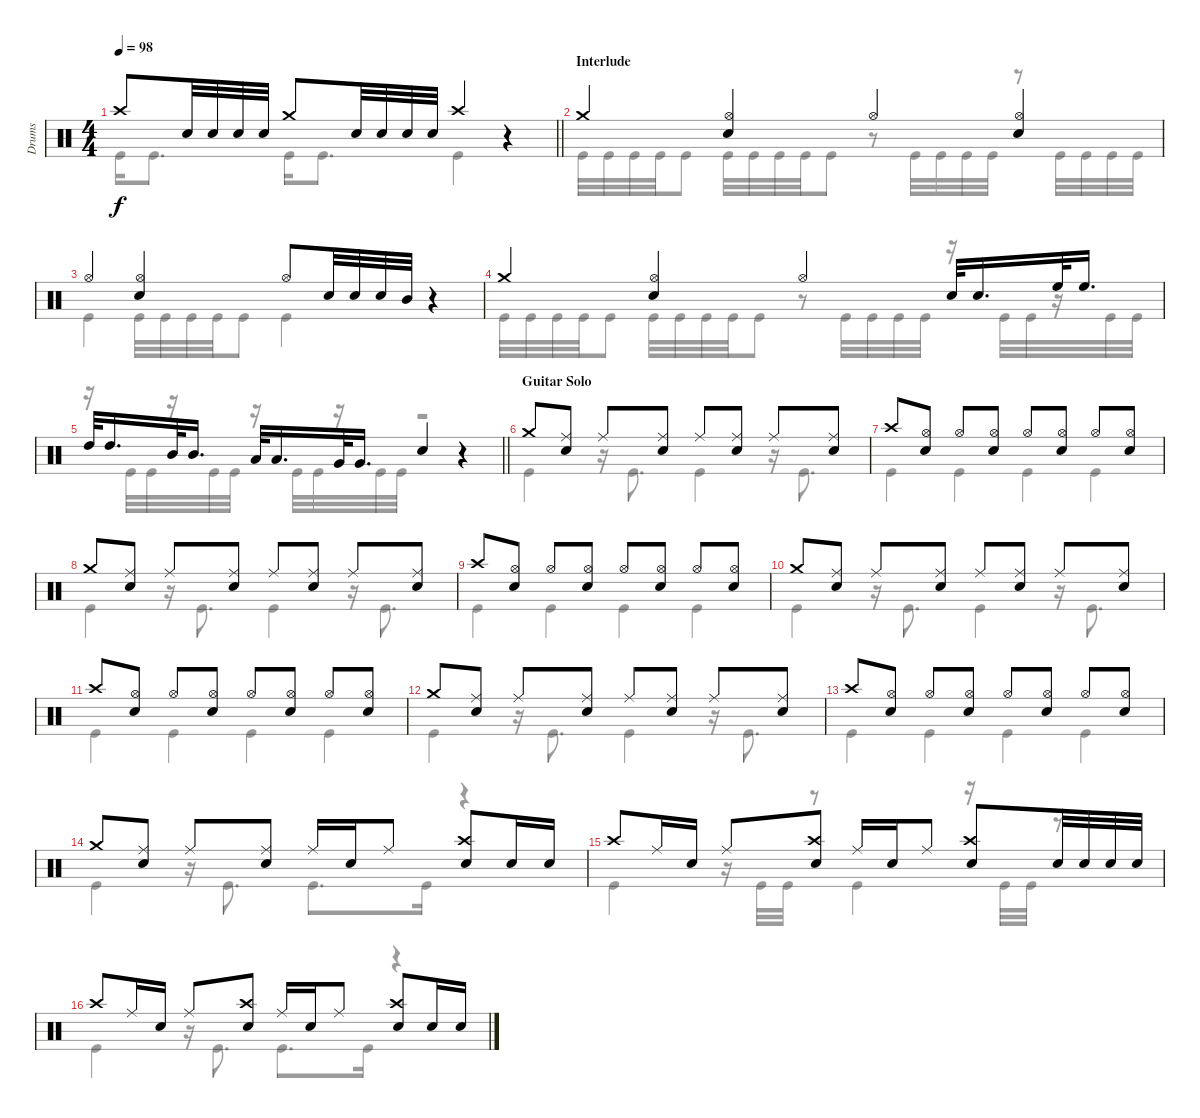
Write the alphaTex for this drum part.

\track ("Drums" "Drums") {instrument percussion}
\staff {score}
\articulation defaults
\voice
\ts (4 4)
\tempo 98
\clef neutral
\barLineRight lightlight
\ks c "Crash high (hit)".8{dy f} "Electric Snare (hit)".32 "Electric Snare (hit)".32 "Electric Snare (hit)".32 "Electric Snare (hit)".32 "Crash medium (hit)".8 "Electric Snare (hit)".32 "Electric Snare (hit)".32 "Electric Snare (hit)".32 "Electric Snare (hit)".32 "Crash high (hit)".4
r.4 |
\section ("" "Interlude")
"Crash medium (hit)".4 ("Hi-Hat (open)" "Electric Snare (hit)").4 "Hi-Hat (open)".4 ("Hi-Hat (open)" "Electric Snare (hit)").4 |
"Hi-Hat (open)".4 ("Hi-Hat (open)" "Electric Snare (hit)").4 "Hi-Hat (open)".8 "Electric Snare (hit)".32 "Electric Snare (hit)".32 "Electric Snare (hit)".32 "Mid Tom (hit)".32 r.4 |
"Crash medium (hit)".4 ("Hi-Hat (open)" "Electric Snare (hit)").4 "Hi-Hat (open)".4 "Electric Snare (hit)".32 "Electric Snare (hit)".16{d} "High Floor Tom (hit)".32 "High Floor Tom (hit)".16{d} |
\barLineRight lightlight "High Tom (hit)".32 "High Tom (hit)".16{d} "Mid Tom (hit)".32 "Mid Tom (hit)".16{d} "Low Tom (hit)".32 "Low Tom (hit)".16{d} "Very Low Tom (hit)".32 "Very Low Tom (hit)".16{d} "Electric Snare (hit)".4
r.4 |
\section ("" "Guitar Solo")
"Crash medium (hit)".8 ("Ride (middle)" "Electric Snare (hit)").8 "Ride (middle)".8 ("Ride (middle)" "Electric Snare (hit)").8 "Ride (middle)".8 ("Ride (middle)" "Electric Snare (hit)").8 "Ride (middle)".8 ("Ride (middle)" "Electric Snare (hit)").8 |
"Crash high (hit)".8 ("Hi-Hat (open)" "Electric Snare (hit)").8 "Hi-Hat (open)".8 ("Hi-Hat (open)" "Electric Snare (hit)").8 "Hi-Hat (open)".8 ("Hi-Hat (open)" "Electric Snare (hit)").8 "Hi-Hat (open)".8 ("Hi-Hat (open)" "Electric Snare (hit)").8 |
"Crash medium (hit)".8 ("Ride (middle)" "Electric Snare (hit)").8 "Ride (middle)".8 ("Ride (middle)" "Electric Snare (hit)").8 "Ride (middle)".8 ("Ride (middle)" "Electric Snare (hit)").8 "Ride (middle)".8 ("Ride (middle)" "Electric Snare (hit)").8 |
"Crash high (hit)".8 ("Hi-Hat (open)" "Electric Snare (hit)").8 "Hi-Hat (open)".8 ("Hi-Hat (open)" "Electric Snare (hit)").8 "Hi-Hat (open)".8 ("Hi-Hat (open)" "Electric Snare (hit)").8 "Hi-Hat (open)".8 ("Hi-Hat (open)" "Electric Snare (hit)").8 |
"Crash medium (hit)".8 ("Ride (middle)" "Electric Snare (hit)").8 "Ride (middle)".8 ("Ride (middle)" "Electric Snare (hit)").8 "Ride (middle)".8 ("Ride (middle)" "Electric Snare (hit)").8 "Ride (middle)".8 ("Ride (middle)" "Electric Snare (hit)").8 |
"Crash high (hit)".8 ("Hi-Hat (open)" "Electric Snare (hit)").8 "Hi-Hat (open)".8 ("Hi-Hat (open)" "Electric Snare (hit)").8 "Hi-Hat (open)".8 ("Hi-Hat (open)" "Electric Snare (hit)").8 "Hi-Hat (open)".8 ("Hi-Hat (open)" "Electric Snare (hit)").8 |
"Crash medium (hit)".8 ("Ride (middle)" "Electric Snare (hit)").8 "Ride (middle)".8 ("Ride (middle)" "Electric Snare (hit)").8 "Ride (middle)".8 ("Ride (middle)" "Electric Snare (hit)").8 "Ride (middle)".8 ("Ride (middle)" "Electric Snare (hit)").8 |
"Crash high (hit)".8 ("Hi-Hat (open)" "Electric Snare (hit)").8 "Hi-Hat (open)".8 ("Hi-Hat (open)" "Electric Snare (hit)").8 "Hi-Hat (open)".8 ("Hi-Hat (open)" "Electric Snare (hit)").8 "Hi-Hat (open)".8 ("Hi-Hat (open)" "Electric Snare (hit)").8 |
"Crash medium (hit)".8 ("Ride (middle)" "Electric Snare (hit)").8 "Ride (middle)".8 ("Ride (middle)" "Electric Snare (hit)").8 "Ride (middle)".16 "Electric Snare (hit)".16 "Ride (middle)".8 ("Crash high (hit)" "Electric Snare (hit)").8 "Electric Snare (hit)".16 "Electric Snare (hit)".16 |
"Crash high (hit)".8 "Ride (middle)".16 "Electric Snare (hit)".16 "Ride (middle)".8 ("Crash high (hit)" "Electric Snare (hit)").8 "Ride (middle)".16 "Electric Snare (hit)".16 "Ride (middle)".8 ("Crash high (hit)" "Electric Snare (hit)").8 "Electric Snare (hit)".32 "Electric Snare (hit)".32 "Electric Snare (hit)".32 "Electric Snare (hit)".32 |
"Crash high (hit)".8 "Ride (middle)".16 "Electric Snare (hit)".16 "Ride (middle)".8 ("Crash high (hit)" "Electric Snare (hit)").8 "Ride (middle)".16 "Electric Snare (hit)".16 "Ride (middle)".8 ("Crash high (hit)" "Electric Snare (hit)").8 "Electric Snare (hit)".16 "Electric Snare (hit)".16
\voice
\clef neutral
\ottava regular
\simile none
\barLineRight lightlight
\ks c "Kick (hit)".16{dy f} "Kick (hit)".8{d} "Kick (hit)".16 "Kick (hit)".8{d} "Kick (hit)".4
r.4 |
"Kick (hit)".32 "Kick (hit)".32 "Kick (hit)".32 "Kick (hit)".32 "Kick (hit)".8 "Kick (hit)".32 "Kick (hit)".32 "Kick (hit)".32 "Kick (hit)".32 "Kick (hit)".8 r.8 "Kick (hit)".32 "Kick (hit)".32 "Kick (hit)".32 "Kick (hit)".32 r.8 "Kick (hit)".32 "Kick (hit)".32 "Kick (hit)".32 "Kick (hit)".32 |
"Kick (hit)".4 "Kick (hit)".32 "Kick (hit)".32 "Kick (hit)".32 "Kick (hit)".32 "Kick (hit)".8 "Kick (hit)".4 r.4 |
"Kick (hit)".32 "Kick (hit)".32 "Kick (hit)".32 "Kick (hit)".32 "Kick (hit)".8 "Kick (hit)".32 "Kick (hit)".32 "Kick (hit)".32 "Kick (hit)".32 "Kick (hit)".8 r.8 "Kick (hit)".32 "Kick (hit)".32 "Kick (hit)".32 "Kick (hit)".32 r.16 "Kick (hit)".32 "Kick (hit)".32 r.16 "Kick (hit)".32 "Kick (hit)".32 |
\barLineRight lightlight
r.16 "Kick (hit)".32 "Kick (hit)".32 r.16 "Kick (hit)".32 "Kick (hit)".32 r.16 "Kick (hit)".32 "Kick (hit)".32 r.16 "Kick (hit)".32 "Kick (hit)".32 r.2 |
"Kick (hit)".4 r.16 "Kick (hit)".8{d} "Kick (hit)".4 r.16 "Kick (hit)".8{d} |
"Kick (hit)".4 "Kick (hit)".4 "Kick (hit)".4 "Kick (hit)".4 |
"Kick (hit)".4 r.16 "Kick (hit)".8{d} "Kick (hit)".4 r.16 "Kick (hit)".8{d} |
"Kick (hit)".4 "Kick (hit)".4 "Kick (hit)".4 "Kick (hit)".4 |
"Kick (hit)".4 r.16 "Kick (hit)".8{d} "Kick (hit)".4 r.16 "Kick (hit)".8{d} |
"Kick (hit)".4 "Kick (hit)".4 "Kick (hit)".4 "Kick (hit)".4 |
"Kick (hit)".4 r.16 "Kick (hit)".8{d} "Kick (hit)".4 r.16 "Kick (hit)".8{d} |
"Kick (hit)".4 "Kick (hit)".4 "Kick (hit)".4 "Kick (hit)".4 |
"Kick (hit)".4 r.16 "Kick (hit)".8{d} "Kick (hit)".8{d} "Kick (hit)".16 r.4 |
"Kick (hit)".4 r.16 "Kick (hit)".32 "Kick (hit)".32 r.8 "Kick (hit)".4 r.16 "Kick (hit)".32 "Kick (hit)".32 r.8 |
"Kick (hit)".4 r.16 "Kick (hit)".8{d} "Kick (hit)".8{d} "Kick (hit)".16 r.4
